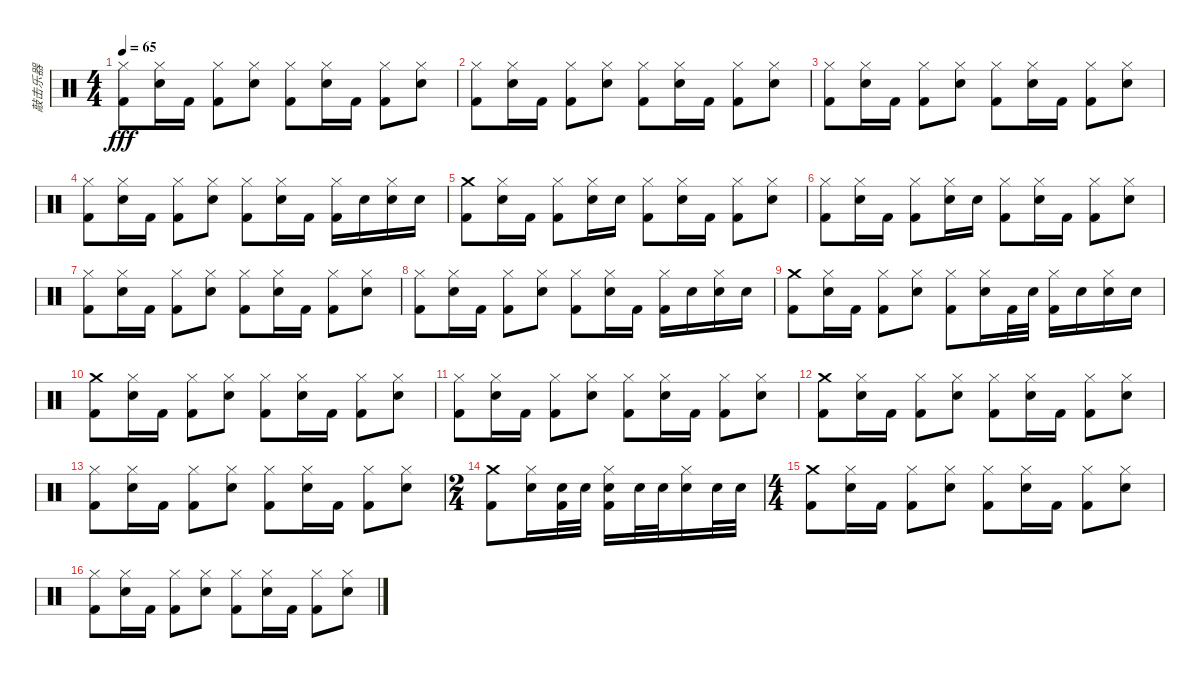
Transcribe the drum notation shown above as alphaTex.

\track ("敲击乐器" "敲击乐器") {instrument percussion}
\staff {score}
\articulation defaults
\ts (4 4)
\tempo 65
\clef neutral
\ks c
("Hi-Hat (closed)" "Kick (hit) 2").8{dy fff} ("Hi-Hat (closed)" "Electric Snare (hit)").16 "Kick (hit) 2".16 ("Hi-Hat (closed)" "Kick (hit) 2").8 ("Hi-Hat (closed)" "Electric Snare (hit)").8 ("Hi-Hat (closed)" "Kick (hit) 2").8 ("Hi-Hat (closed)" "Electric Snare (hit)").16 "Kick (hit) 2".16 ("Hi-Hat (closed)" "Kick (hit) 2").8 ("Hi-Hat (closed)" "Electric Snare (hit)").8 |
("Hi-Hat (closed)" "Kick (hit) 2").8 ("Hi-Hat (closed)" "Electric Snare (hit)").16 "Kick (hit) 2".16 ("Hi-Hat (closed)" "Kick (hit) 2").8 ("Hi-Hat (closed)" "Electric Snare (hit)").8 ("Hi-Hat (closed)" "Kick (hit) 2").8 ("Hi-Hat (closed)" "Electric Snare (hit)").16 "Kick (hit) 2".16 ("Hi-Hat (closed)" "Kick (hit) 2").8 ("Hi-Hat (closed)" "Electric Snare (hit)").8 |
("Hi-Hat (closed)" "Kick (hit) 2").8 ("Hi-Hat (closed)" "Electric Snare (hit)").16 "Kick (hit) 2".16 ("Hi-Hat (closed)" "Kick (hit) 2").8 ("Hi-Hat (closed)" "Electric Snare (hit)").8 ("Hi-Hat (closed)" "Kick (hit) 2").8 ("Hi-Hat (closed)" "Electric Snare (hit)").16 "Kick (hit) 2".16 ("Hi-Hat (closed)" "Kick (hit) 2").8 ("Hi-Hat (closed)" "Electric Snare (hit)").8 |
("Hi-Hat (closed)" "Kick (hit) 2").8 ("Hi-Hat (closed)" "Electric Snare (hit)").16 "Kick (hit) 2".16 ("Hi-Hat (closed)" "Kick (hit) 2").8 ("Hi-Hat (closed)" "Electric Snare (hit)").8 ("Hi-Hat (closed)" "Kick (hit) 2").8 ("Hi-Hat (closed)" "Electric Snare (hit)").16 "Kick (hit) 2".16 ("Hi-Hat (closed)" "Kick (hit) 2").16 "Electric Snare (hit)".16 ("Hi-Hat (closed)" "Electric Snare (hit)").16 "Electric Snare (hit)".16 |
("Crash medium (hit)" "Kick (hit) 2").8 ("Hi-Hat (closed)" "Electric Snare (hit)").16 "Kick (hit) 2".16 ("Hi-Hat (closed)" "Kick (hit) 2").8 ("Hi-Hat (closed)" "Electric Snare (hit)").16 "Electric Snare (hit)".16 ("Hi-Hat (closed)" "Kick (hit) 2").8 ("Hi-Hat (closed)" "Electric Snare (hit)").16 "Kick (hit) 2".16 ("Hi-Hat (closed)" "Kick (hit) 2").8 ("Hi-Hat (closed)" "Electric Snare (hit)").8 |
("Hi-Hat (closed)" "Kick (hit) 2").8 ("Hi-Hat (closed)" "Electric Snare (hit)").16 "Kick (hit) 2".16 ("Hi-Hat (closed)" "Kick (hit) 2").8 ("Hi-Hat (closed)" "Electric Snare (hit)").16 "Electric Snare (hit)".16 ("Hi-Hat (closed)" "Kick (hit) 2").8 ("Hi-Hat (closed)" "Electric Snare (hit)").16 "Kick (hit) 2".16 ("Hi-Hat (closed)" "Kick (hit) 2").8 ("Hi-Hat (closed)" "Electric Snare (hit)").8 |
("Hi-Hat (closed)" "Kick (hit) 2").8 ("Hi-Hat (closed)" "Electric Snare (hit)").16 "Kick (hit) 2".16 ("Hi-Hat (closed)" "Kick (hit) 2").8 ("Hi-Hat (closed)" "Electric Snare (hit)").8 ("Hi-Hat (closed)" "Kick (hit) 2").8 ("Hi-Hat (closed)" "Electric Snare (hit)").16 "Kick (hit) 2".16 ("Hi-Hat (closed)" "Kick (hit) 2").8 ("Hi-Hat (closed)" "Electric Snare (hit)").8 |
("Hi-Hat (closed)" "Kick (hit) 2").8 ("Hi-Hat (closed)" "Electric Snare (hit)").16 "Kick (hit) 2".16 ("Hi-Hat (closed)" "Kick (hit) 2").8 ("Hi-Hat (closed)" "Electric Snare (hit)").8 ("Hi-Hat (closed)" "Kick (hit) 2").8 ("Hi-Hat (closed)" "Electric Snare (hit)").16 "Kick (hit) 2".16 ("Hi-Hat (closed)" "Kick (hit) 2").16 "Electric Snare (hit)".16 ("Hi-Hat (closed)" "Electric Snare (hit)").16 "Electric Snare (hit)".16 |
("Crash medium (hit)" "Kick (hit) 2").8 ("Hi-Hat (closed)" "Electric Snare (hit)").16 "Kick (hit) 2".16 ("Hi-Hat (closed)" "Kick (hit) 2").8 ("Hi-Hat (closed)" "Electric Snare (hit)").8 ("Hi-Hat (closed)" "Kick (hit) 2").8 ("Hi-Hat (closed)" "Electric Snare (hit)").16 "Kick (hit) 2".32 "Electric Snare (hit)".32 ("Hi-Hat (closed)" "Kick (hit) 2").16 "Electric Snare (hit)".16 ("Hi-Hat (closed)" "Electric Snare (hit)").16 "Electric Snare (hit)".16 |
("Crash medium (hit)" "Kick (hit) 2").8 ("Hi-Hat (closed)" "Electric Snare (hit)").16 "Kick (hit) 2".16 ("Hi-Hat (closed)" "Kick (hit) 2").8 ("Hi-Hat (closed)" "Electric Snare (hit)").8 ("Hi-Hat (closed)" "Kick (hit) 2").8 ("Hi-Hat (closed)" "Electric Snare (hit)").16 "Kick (hit) 2".16 ("Hi-Hat (closed)" "Kick (hit) 2").8 ("Hi-Hat (closed)" "Electric Snare (hit)").8 |
("Hi-Hat (closed)" "Kick (hit) 2").8 ("Hi-Hat (closed)" "Electric Snare (hit)").16 "Kick (hit) 2".16 ("Hi-Hat (closed)" "Kick (hit) 2").8 ("Hi-Hat (closed)" "Electric Snare (hit)").8 ("Hi-Hat (closed)" "Kick (hit) 2").8 ("Hi-Hat (closed)" "Electric Snare (hit)").16 "Kick (hit) 2".16 ("Hi-Hat (closed)" "Kick (hit) 2").8 ("Hi-Hat (closed)" "Electric Snare (hit)").8 |
("Crash medium (hit)" "Kick (hit) 2").8 ("Hi-Hat (closed)" "Electric Snare (hit)").16 "Kick (hit) 2".16 ("Hi-Hat (closed)" "Kick (hit) 2").8 ("Hi-Hat (closed)" "Electric Snare (hit)").8 ("Hi-Hat (closed)" "Kick (hit) 2").8 ("Hi-Hat (closed)" "Electric Snare (hit)").16 "Kick (hit) 2".16 ("Hi-Hat (closed)" "Kick (hit) 2").8 ("Hi-Hat (closed)" "Electric Snare (hit)").8 |
("Hi-Hat (closed)" "Kick (hit) 2").8 ("Hi-Hat (closed)" "Electric Snare (hit)").16 "Kick (hit) 2".16 ("Hi-Hat (closed)" "Kick (hit) 2").8 ("Hi-Hat (closed)" "Electric Snare (hit)").8 ("Hi-Hat (closed)" "Kick (hit) 2").8 ("Hi-Hat (closed)" "Electric Snare (hit)").16 "Kick (hit) 2".16 ("Hi-Hat (closed)" "Kick (hit) 2").8 ("Hi-Hat (closed)" "Electric Snare (hit)").8 |
\ts (2 4)
("Crash medium (hit)" "Kick (hit) 2").8 ("Hi-Hat (closed)" "Electric Snare (hit)").16 ("Electric Snare (hit)" "Kick (hit) 2").32 "Electric Snare (hit)".32 ("Hi-Hat (closed)" "Electric Snare (hit)" "Kick (hit) 2").16 "Electric Snare (hit)".32 "Electric Snare (hit)".32 ("Hi-Hat (closed)" "Electric Snare (hit)").16 "Electric Snare (hit)".32 "Electric Snare (hit)".32 |
\ts (4 4)
("Crash medium (hit)" "Kick (hit) 2").8 ("Hi-Hat (closed)" "Electric Snare (hit)").16 "Kick (hit) 2".16 ("Hi-Hat (closed)" "Kick (hit) 2").8 ("Hi-Hat (closed)" "Electric Snare (hit)").8 ("Hi-Hat (closed)" "Kick (hit) 2").8 ("Hi-Hat (closed)" "Electric Snare (hit)").16 "Kick (hit) 2".16 ("Hi-Hat (closed)" "Kick (hit) 2").8 ("Hi-Hat (closed)" "Electric Snare (hit)").8 |
("Hi-Hat (closed)" "Kick (hit) 2").8 ("Hi-Hat (closed)" "Electric Snare (hit)").16 "Kick (hit) 2".16 ("Hi-Hat (closed)" "Kick (hit) 2").8 ("Hi-Hat (closed)" "Electric Snare (hit)").8 ("Hi-Hat (closed)" "Kick (hit) 2").8 ("Hi-Hat (closed)" "Electric Snare (hit)").16 "Kick (hit) 2".16 ("Hi-Hat (closed)" "Kick (hit) 2").8 ("Hi-Hat (closed)" "Electric Snare (hit)").8
